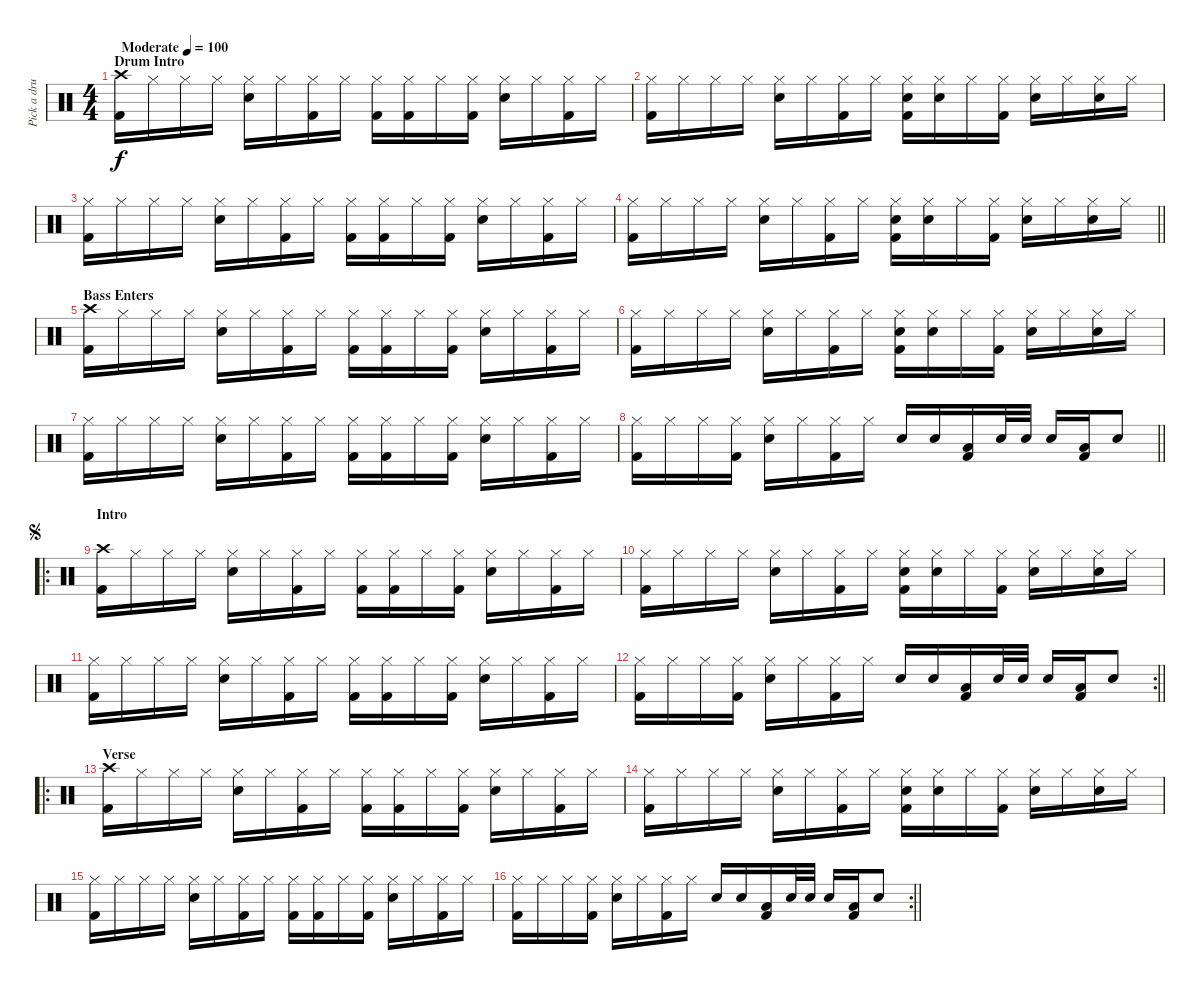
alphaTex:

\track ("Pick a drummer any drummer" "Pick a dru") {instrument percussion}
\staff {score}
\articulation defaults
\ts (4 4)
\section ("" "Drum Intro")
\tempo (100 "Moderate")
\clef neutral
\ks c
("Kick (hit) 2" "Crash high (hit)").16{dy f} "Hi-Hat (closed)".16 "Hi-Hat (closed)".16 "Hi-Hat (closed)".16 ("Hi-Hat (closed)" "Snare (hit) 2").16 "Hi-Hat (closed)".16 ("Hi-Hat (closed)" "Kick (hit) 2").16 "Hi-Hat (closed)".16 ("Hi-Hat (closed)" "Kick (hit) 2").16 ("Hi-Hat (closed)" "Kick (hit) 2").16 "Hi-Hat (closed)".16 ("Hi-Hat (closed)" "Kick (hit) 2").16 ("Hi-Hat (closed)" "Snare (hit) 2").16 "Hi-Hat (closed)".16 ("Hi-Hat (closed)" "Kick (hit) 2").16 "Hi-Hat (closed)".16 |
("Hi-Hat (closed)" "Kick (hit) 2").16 "Hi-Hat (closed)".16 "Hi-Hat (closed)".16 "Hi-Hat (closed)".16 ("Hi-Hat (closed)" "Snare (hit) 2").16 "Hi-Hat (closed)".16 ("Hi-Hat (closed)" "Kick (hit) 2").16 "Hi-Hat (closed)".16 ("Hi-Hat (closed)" "Snare (hit) 2" "Kick (hit) 2").16 ("Hi-Hat (closed)" "Snare (hit) 2").16 "Hi-Hat (closed)".16 ("Hi-Hat (closed)" "Kick (hit) 2").16 ("Hi-Hat (closed)" "Snare (hit) 2").16 "Hi-Hat (closed)".16 ("Hi-Hat (closed)" "Snare (hit) 2").16 "Hi-Hat (closed)".16 |
("Hi-Hat (closed)" "Kick (hit) 2").16 "Hi-Hat (closed)".16 "Hi-Hat (closed)".16 "Hi-Hat (closed)".16 ("Hi-Hat (closed)" "Snare (hit) 2").16 "Hi-Hat (closed)".16 ("Hi-Hat (closed)" "Kick (hit) 2").16 "Hi-Hat (closed)".16 ("Hi-Hat (closed)" "Kick (hit) 2").16 ("Hi-Hat (closed)" "Kick (hit) 2").16 "Hi-Hat (closed)".16 ("Hi-Hat (closed)" "Kick (hit) 2").16 ("Hi-Hat (closed)" "Snare (hit) 2").16 "Hi-Hat (closed)".16 ("Hi-Hat (closed)" "Kick (hit) 2").16 "Hi-Hat (closed)".16 |
\barLineRight lightlight
("Hi-Hat (closed)" "Kick (hit) 2").16 "Hi-Hat (closed)".16 "Hi-Hat (closed)".16 "Hi-Hat (closed)".16 ("Hi-Hat (closed)" "Snare (hit) 2").16 "Hi-Hat (closed)".16 ("Hi-Hat (closed)" "Kick (hit) 2").16 "Hi-Hat (closed)".16 ("Hi-Hat (closed)" "Snare (hit) 2" "Kick (hit) 2").16 ("Hi-Hat (closed)" "Snare (hit) 2").16 "Hi-Hat (closed)".16 ("Hi-Hat (closed)" "Kick (hit) 2").16 ("Hi-Hat (closed)" "Snare (hit) 2").16 "Hi-Hat (closed)".16 ("Hi-Hat (closed)" "Snare (hit) 2").16 "Hi-Hat (closed)".16 |
\section ("" "Bass Enters")
("Kick (hit) 2" "Crash high (hit)").16 "Hi-Hat (closed)".16 "Hi-Hat (closed)".16 "Hi-Hat (closed)".16 ("Hi-Hat (closed)" "Snare (hit) 2").16 "Hi-Hat (closed)".16 ("Hi-Hat (closed)" "Kick (hit) 2").16 "Hi-Hat (closed)".16 ("Hi-Hat (closed)" "Kick (hit) 2").16 ("Hi-Hat (closed)" "Kick (hit) 2").16 "Hi-Hat (closed)".16 ("Hi-Hat (closed)" "Kick (hit) 2").16 ("Hi-Hat (closed)" "Snare (hit) 2").16 "Hi-Hat (closed)".16 ("Hi-Hat (closed)" "Kick (hit) 2").16 "Hi-Hat (closed)".16 |
("Hi-Hat (closed)" "Kick (hit) 2").16 "Hi-Hat (closed)".16 "Hi-Hat (closed)".16 "Hi-Hat (closed)".16 ("Hi-Hat (closed)" "Snare (hit) 2").16 "Hi-Hat (closed)".16 ("Hi-Hat (closed)" "Kick (hit) 2").16 "Hi-Hat (closed)".16 ("Hi-Hat (closed)" "Snare (hit) 2" "Kick (hit) 2").16 ("Hi-Hat (closed)" "Snare (hit) 2").16 "Hi-Hat (closed)".16 ("Hi-Hat (closed)" "Kick (hit) 2").16 ("Hi-Hat (closed)" "Snare (hit) 2").16 "Hi-Hat (closed)".16 ("Hi-Hat (closed)" "Snare (hit) 2").16 "Hi-Hat (closed)".16 |
("Hi-Hat (closed)" "Kick (hit) 2").16 "Hi-Hat (closed)".16 "Hi-Hat (closed)".16 "Hi-Hat (closed)".16 ("Hi-Hat (closed)" "Snare (hit) 2").16 "Hi-Hat (closed)".16 ("Hi-Hat (closed)" "Kick (hit) 2").16 "Hi-Hat (closed)".16 ("Hi-Hat (closed)" "Kick (hit) 2").16 ("Hi-Hat (closed)" "Kick (hit) 2").16 "Hi-Hat (closed)".16 ("Hi-Hat (closed)" "Kick (hit) 2").16 ("Hi-Hat (closed)" "Snare (hit) 2").16 "Hi-Hat (closed)".16 ("Hi-Hat (closed)" "Kick (hit) 2").16 "Hi-Hat (closed)".16 |
\barLineRight lightlight
("Hi-Hat (closed)" "Kick (hit) 2").16 "Hi-Hat (closed)".16 "Hi-Hat (closed)".16 ("Hi-Hat (closed)" "Kick (hit) 2").16 ("Hi-Hat (closed)" "Snare (hit) 2").16 "Hi-Hat (closed)".16 ("Hi-Hat (closed)" "Kick (hit) 2").16 "Hi-Hat (closed)".16 "Snare (hit) 2".16 "Snare (hit) 2".16 ("Kick (hit) 2" "Low Tom (hit)").16 "Snare (hit) 2".32 "Snare (hit) 2".32 "Snare (hit) 2".16 ("Kick (hit) 2" "Low Tom (hit)").16 "Snare (hit) 2".8 |
\ro
\section ("" "Intro")
\jump segno
("Kick (hit) 2" "Crash high (hit)").16 "Hi-Hat (closed)".16 "Hi-Hat (closed)".16 "Hi-Hat (closed)".16 ("Hi-Hat (closed)" "Snare (hit) 2").16 "Hi-Hat (closed)".16 ("Hi-Hat (closed)" "Kick (hit) 2").16 "Hi-Hat (closed)".16 ("Hi-Hat (closed)" "Kick (hit) 2").16 ("Hi-Hat (closed)" "Kick (hit) 2").16 "Hi-Hat (closed)".16 ("Hi-Hat (closed)" "Kick (hit) 2").16 ("Hi-Hat (closed)" "Snare (hit) 2").16 "Hi-Hat (closed)".16 ("Hi-Hat (closed)" "Kick (hit) 2").16 "Hi-Hat (closed)".16 |
("Hi-Hat (closed)" "Kick (hit) 2").16 "Hi-Hat (closed)".16 "Hi-Hat (closed)".16 "Hi-Hat (closed)".16 ("Hi-Hat (closed)" "Snare (hit) 2").16 "Hi-Hat (closed)".16 ("Hi-Hat (closed)" "Kick (hit) 2").16 "Hi-Hat (closed)".16 ("Hi-Hat (closed)" "Snare (hit) 2" "Kick (hit) 2").16 ("Hi-Hat (closed)" "Snare (hit) 2").16 "Hi-Hat (closed)".16 ("Hi-Hat (closed)" "Kick (hit) 2").16 ("Hi-Hat (closed)" "Snare (hit) 2").16 "Hi-Hat (closed)".16 ("Hi-Hat (closed)" "Snare (hit) 2").16 "Hi-Hat (closed)".16 |
("Hi-Hat (closed)" "Kick (hit) 2").16 "Hi-Hat (closed)".16 "Hi-Hat (closed)".16 "Hi-Hat (closed)".16 ("Hi-Hat (closed)" "Snare (hit) 2").16 "Hi-Hat (closed)".16 ("Hi-Hat (closed)" "Kick (hit) 2").16 "Hi-Hat (closed)".16 ("Hi-Hat (closed)" "Kick (hit) 2").16 ("Hi-Hat (closed)" "Kick (hit) 2").16 "Hi-Hat (closed)".16 ("Hi-Hat (closed)" "Kick (hit) 2").16 ("Hi-Hat (closed)" "Snare (hit) 2").16 "Hi-Hat (closed)".16 ("Hi-Hat (closed)" "Kick (hit) 2").16 "Hi-Hat (closed)".16 |
\rc 2
\barLineRight lightlight
("Hi-Hat (closed)" "Kick (hit) 2").16 "Hi-Hat (closed)".16 "Hi-Hat (closed)".16 ("Hi-Hat (closed)" "Kick (hit) 2").16 ("Hi-Hat (closed)" "Snare (hit) 2").16 "Hi-Hat (closed)".16 ("Hi-Hat (closed)" "Kick (hit) 2").16 "Hi-Hat (closed)".16 "Snare (hit) 2".16 "Snare (hit) 2".16 ("Kick (hit) 2" "Low Tom (hit)").16 "Snare (hit) 2".32 "Snare (hit) 2".32 "Snare (hit) 2".16 ("Kick (hit) 2" "Low Tom (hit)").16 "Snare (hit) 2".8 |
\ro
\section ("" "Verse")
("Kick (hit) 2" "Crash high (hit)").16 "Hi-Hat (closed)".16 "Hi-Hat (closed)".16 "Hi-Hat (closed)".16 ("Hi-Hat (closed)" "Snare (hit) 2").16 "Hi-Hat (closed)".16 ("Hi-Hat (closed)" "Kick (hit) 2").16 "Hi-Hat (closed)".16 ("Hi-Hat (closed)" "Kick (hit) 2").16 ("Hi-Hat (closed)" "Kick (hit) 2").16 "Hi-Hat (closed)".16 ("Hi-Hat (closed)" "Kick (hit) 2").16 ("Hi-Hat (closed)" "Snare (hit) 2").16 "Hi-Hat (closed)".16 ("Hi-Hat (closed)" "Kick (hit) 2").16 "Hi-Hat (closed)".16 |
("Hi-Hat (closed)" "Kick (hit) 2").16 "Hi-Hat (closed)".16 "Hi-Hat (closed)".16 "Hi-Hat (closed)".16 ("Hi-Hat (closed)" "Snare (hit) 2").16 "Hi-Hat (closed)".16 ("Hi-Hat (closed)" "Kick (hit) 2").16 "Hi-Hat (closed)".16 ("Hi-Hat (closed)" "Snare (hit) 2" "Kick (hit) 2").16 ("Hi-Hat (closed)" "Snare (hit) 2").16 "Hi-Hat (closed)".16 ("Hi-Hat (closed)" "Kick (hit) 2").16 ("Hi-Hat (closed)" "Snare (hit) 2").16 "Hi-Hat (closed)".16 ("Hi-Hat (closed)" "Snare (hit) 2").16 "Hi-Hat (closed)".16 |
("Hi-Hat (closed)" "Kick (hit) 2").16 "Hi-Hat (closed)".16 "Hi-Hat (closed)".16 "Hi-Hat (closed)".16 ("Hi-Hat (closed)" "Snare (hit) 2").16 "Hi-Hat (closed)".16 ("Hi-Hat (closed)" "Kick (hit) 2").16 "Hi-Hat (closed)".16 ("Hi-Hat (closed)" "Kick (hit) 2").16 ("Hi-Hat (closed)" "Kick (hit) 2").16 "Hi-Hat (closed)".16 ("Hi-Hat (closed)" "Kick (hit) 2").16 ("Hi-Hat (closed)" "Snare (hit) 2").16 "Hi-Hat (closed)".16 ("Hi-Hat (closed)" "Kick (hit) 2").16 "Hi-Hat (closed)".16 |
\rc 2
\barLineRight lightlight
("Hi-Hat (closed)" "Kick (hit) 2").16 "Hi-Hat (closed)".16 "Hi-Hat (closed)".16 ("Hi-Hat (closed)" "Kick (hit) 2").16 ("Hi-Hat (closed)" "Snare (hit) 2").16 "Hi-Hat (closed)".16 ("Hi-Hat (closed)" "Kick (hit) 2").16 "Hi-Hat (closed)".16 "Snare (hit) 2".16 "Snare (hit) 2".16 ("Kick (hit) 2" "Low Tom (hit)").16 "Snare (hit) 2".32 "Snare (hit) 2".32 "Snare (hit) 2".16 ("Kick (hit) 2" "Low Tom (hit)").16 "Snare (hit) 2".8
